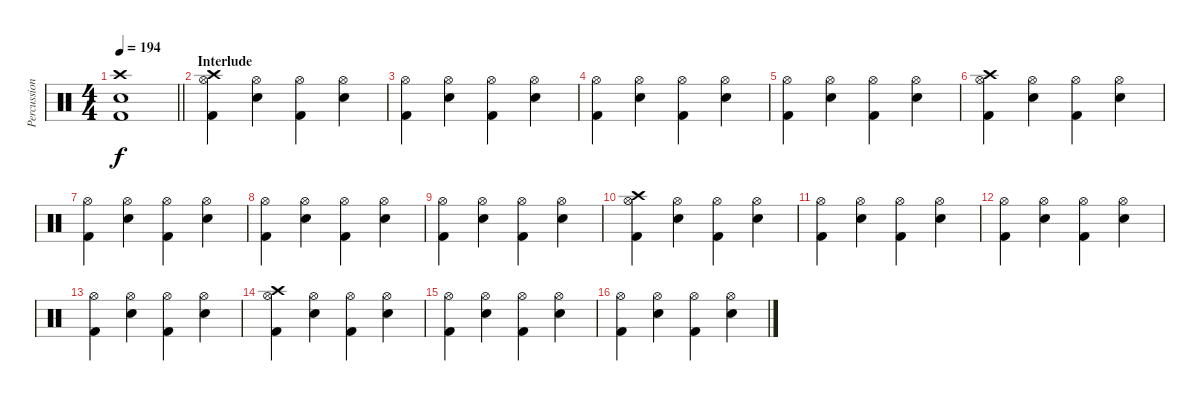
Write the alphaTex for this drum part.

\track ("Percussion" "Percussion") {instrument percussion}
\staff {score}
\articulation defaults
\ts (4 4)
\tempo 194
\clef neutral
\barLineRight lightlight
\ks c
("Crash high (hit)" "Electric Snare (hit)" "Kick (hit) 2").1{dy f} |
\section ("" "Interlude")
("Crash high (hit)" "Hi-Hat (open)" "Kick (hit) 2").4 ("Hi-Hat (open)" "Electric Snare (hit)").4 ("Hi-Hat (open)" "Kick (hit) 2").4 ("Hi-Hat (open)" "Electric Snare (hit)").4 |
("Hi-Hat (open)" "Kick (hit) 2").4 ("Hi-Hat (open)" "Electric Snare (hit)").4 ("Hi-Hat (open)" "Kick (hit) 2").4 ("Hi-Hat (open)" "Electric Snare (hit)").4 |
("Hi-Hat (open)" "Kick (hit) 2").4 ("Hi-Hat (open)" "Electric Snare (hit)").4 ("Hi-Hat (open)" "Kick (hit) 2").4 ("Hi-Hat (open)" "Electric Snare (hit)").4 |
("Hi-Hat (open)" "Kick (hit) 2").4 ("Hi-Hat (open)" "Electric Snare (hit)").4 ("Hi-Hat (open)" "Kick (hit) 2").4 ("Hi-Hat (open)" "Electric Snare (hit)").4 |
("Crash high (hit)" "Hi-Hat (open)" "Kick (hit) 2").4 ("Hi-Hat (open)" "Electric Snare (hit)").4 ("Hi-Hat (open)" "Kick (hit) 2").4 ("Hi-Hat (open)" "Electric Snare (hit)").4 |
("Hi-Hat (open)" "Kick (hit) 2").4 ("Hi-Hat (open)" "Electric Snare (hit)").4 ("Hi-Hat (open)" "Kick (hit) 2").4 ("Hi-Hat (open)" "Electric Snare (hit)").4 |
("Hi-Hat (open)" "Kick (hit) 2").4 ("Hi-Hat (open)" "Electric Snare (hit)").4 ("Hi-Hat (open)" "Kick (hit) 2").4 ("Hi-Hat (open)" "Electric Snare (hit)").4 |
("Hi-Hat (open)" "Kick (hit) 2").4 ("Hi-Hat (open)" "Electric Snare (hit)").4 ("Hi-Hat (open)" "Kick (hit) 2").4 ("Hi-Hat (open)" "Electric Snare (hit)").4 |
("Crash high (hit)" "Hi-Hat (open)" "Kick (hit) 2").4 ("Hi-Hat (open)" "Electric Snare (hit)").4 ("Hi-Hat (open)" "Kick (hit) 2").4 ("Hi-Hat (open)" "Electric Snare (hit)").4 |
("Hi-Hat (open)" "Kick (hit) 2").4 ("Hi-Hat (open)" "Electric Snare (hit)").4 ("Hi-Hat (open)" "Kick (hit) 2").4 ("Hi-Hat (open)" "Electric Snare (hit)").4 |
("Hi-Hat (open)" "Kick (hit) 2").4 ("Hi-Hat (open)" "Electric Snare (hit)").4 ("Hi-Hat (open)" "Kick (hit) 2").4 ("Hi-Hat (open)" "Electric Snare (hit)").4 |
("Hi-Hat (open)" "Kick (hit) 2").4 ("Hi-Hat (open)" "Electric Snare (hit)").4 ("Hi-Hat (open)" "Kick (hit) 2").4 ("Hi-Hat (open)" "Electric Snare (hit)").4 |
("Crash high (hit)" "Hi-Hat (open)" "Kick (hit) 2").4 ("Hi-Hat (open)" "Electric Snare (hit)").4 ("Hi-Hat (open)" "Kick (hit) 2").4 ("Hi-Hat (open)" "Electric Snare (hit)").4 |
("Hi-Hat (open)" "Kick (hit) 2").4 ("Hi-Hat (open)" "Electric Snare (hit)").4 ("Hi-Hat (open)" "Kick (hit) 2").4 ("Hi-Hat (open)" "Electric Snare (hit)").4 |
("Hi-Hat (open)" "Kick (hit) 2").4 ("Hi-Hat (open)" "Electric Snare (hit)").4 ("Hi-Hat (open)" "Kick (hit) 2").4 ("Hi-Hat (open)" "Electric Snare (hit)").4
